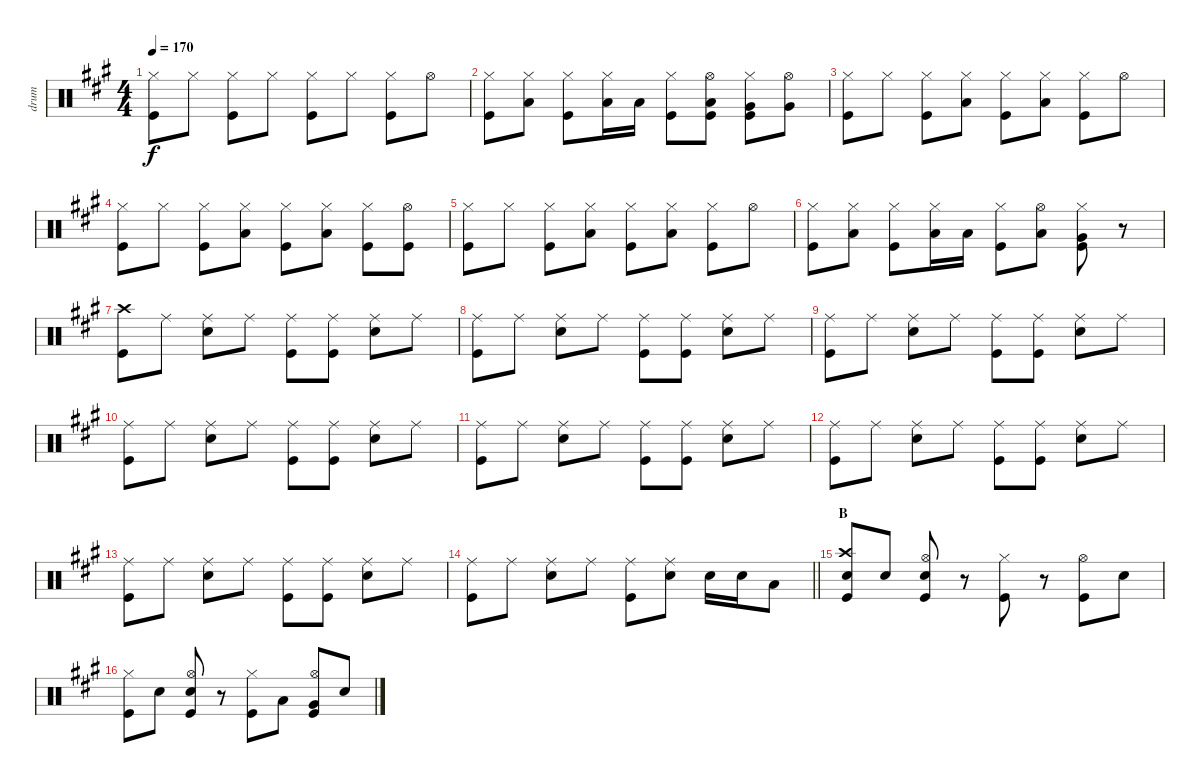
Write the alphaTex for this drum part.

\track ("drum" "drum") {instrument percussion}
\staff {score}
\articulation defaults
\ts (4 4)
\tempo 170
\clef neutral
\ks a
("Hi-Hat (closed)" "Kick (hit)").8{dy f} "Hi-Hat (closed)".8 ("Hi-Hat (closed)" "Kick (hit)").8 "Hi-Hat (closed)".8 ("Hi-Hat (closed)" "Kick (hit)").8 "Hi-Hat (closed)".8 ("Hi-Hat (closed)" "Kick (hit)").8 "Hi-Hat (open)".8 |
("Hi-Hat (closed)" "Kick (hit)").8 ("Hi-Hat (closed)" "Low Tom (hit)").8 ("Hi-Hat (closed)" "Kick (hit)").8 ("Hi-Hat (closed)" "Low Tom (hit)").16 "Low Tom (hit)".16 ("Hi-Hat (closed)" "Kick (hit)").8 ("Hi-Hat (open)" "Low Tom (hit)" "Kick (hit)").8 ("Hi-Hat (closed)" "Very Low Tom (hit)" "Kick (hit)").8 ("Hi-Hat (open)" "Very Low Tom (hit)").8 |
("Hi-Hat (closed)" "Kick (hit)").8 "Hi-Hat (closed)".8 ("Hi-Hat (closed)" "Kick (hit)").8 ("Hi-Hat (closed)" "Low Tom (hit)").8 ("Hi-Hat (closed)" "Kick (hit)").8 ("Hi-Hat (closed)" "Low Tom (hit)").8 ("Hi-Hat (closed)" "Kick (hit)").8 "Hi-Hat (open)".8 |
("Hi-Hat (closed)" "Kick (hit)").8 "Hi-Hat (closed)".8 ("Hi-Hat (closed)" "Kick (hit)").8 ("Hi-Hat (closed)" "Low Tom (hit)").8 ("Hi-Hat (closed)" "Kick (hit)").8 ("Hi-Hat (closed)" "Low Tom (hit)").8 ("Hi-Hat (closed)" "Kick (hit)").8 ("Hi-Hat (open)" "Kick (hit)").8 |
("Hi-Hat (closed)" "Kick (hit)").8 "Hi-Hat (closed)".8 ("Hi-Hat (closed)" "Kick (hit)").8 ("Hi-Hat (closed)" "Low Tom (hit)").8 ("Hi-Hat (closed)" "Kick (hit)").8 ("Hi-Hat (closed)" "Low Tom (hit)").8 ("Hi-Hat (closed)" "Kick (hit)").8 "Hi-Hat (open)".8 |
("Hi-Hat (closed)" "Kick (hit)").8 ("Hi-Hat (closed)" "Low Tom (hit)").8 ("Hi-Hat (closed)" "Kick (hit)").8 ("Hi-Hat (closed)" "Low Tom (hit)").16 "Low Tom (hit)".16 ("Hi-Hat (closed)" "Kick (hit)").8 ("Hi-Hat (open)" "Low Tom (hit)").8 ("Hi-Hat (closed)" "Very Low Tom (hit)" "Kick (hit)").8 r.8 |
("Crash high (hit)" "Kick (hit)").8 "Ride (middle)".8 ("Ride (middle)" "Snare (hit) 2").8 "Ride (middle)".8 ("Ride (middle)" "Kick (hit)").8 ("Ride (middle)" "Kick (hit)").8 ("Ride (middle)" "Snare (hit) 2").8 "Ride (middle)".8 |
("Ride (middle)" "Kick (hit)").8 "Ride (middle)".8 ("Ride (middle)" "Snare (hit) 2").8 "Ride (middle)".8 ("Ride (middle)" "Kick (hit)").8 ("Ride (middle)" "Kick (hit)").8 ("Ride (middle)" "Snare (hit) 2").8 "Ride (middle)".8 |
("Ride (middle)" "Kick (hit)").8 "Ride (middle)".8 ("Ride (middle)" "Snare (hit) 2").8 "Ride (middle)".8 ("Ride (middle)" "Kick (hit)").8 ("Ride (middle)" "Kick (hit)").8 ("Ride (middle)" "Snare (hit) 2").8 "Ride (middle)".8 |
("Ride (middle)" "Kick (hit)").8 "Ride (middle)".8 ("Ride (middle)" "Snare (hit) 2").8 "Ride (middle)".8 ("Ride (middle)" "Kick (hit)").8 ("Ride (middle)" "Kick (hit)").8 ("Ride (middle)" "Snare (hit) 2").8 "Ride (middle)".8 |
("Ride (middle)" "Kick (hit)").8 "Ride (middle)".8 ("Ride (middle)" "Snare (hit) 2").8 "Ride (middle)".8 ("Ride (middle)" "Kick (hit)").8 ("Ride (middle)" "Kick (hit)").8 ("Ride (middle)" "Snare (hit) 2").8 "Ride (middle)".8 |
("Ride (middle)" "Kick (hit)").8 "Ride (middle)".8 ("Ride (middle)" "Snare (hit) 2").8 "Ride (middle)".8 ("Ride (middle)" "Kick (hit)").8 ("Ride (middle)" "Kick (hit)").8 ("Ride (middle)" "Snare (hit) 2").8 "Ride (middle)".8 |
("Ride (middle)" "Kick (hit)").8 "Ride (middle)".8 ("Ride (middle)" "Snare (hit) 2").8 "Ride (middle)".8 ("Ride (middle)" "Kick (hit)").8 ("Ride (middle)" "Kick (hit)").8 ("Ride (middle)" "Snare (hit) 2").8 "Ride (middle)".8 |
\barLineRight lightlight
("Ride (middle)" "Kick (hit)").8 "Ride (middle)".8 ("Ride (middle)" "Snare (hit) 2").8 "Ride (middle)".8 ("Ride (middle)" "Kick (hit)").8 ("Ride (middle)" "Snare (hit) 2").8 "Snare (hit) 2".16 "Snare (hit) 2".16 "Low Tom (hit)".8 |
\section ("" "B")
("Crash high (hit)" "Snare (hit) 2" "Kick (hit)").8 "Snare (hit) 2".8 ("Hi-Hat (open)" "Snare (hit) 2" "Kick (hit)").8 r.8 ("Hi-Hat (closed)" "Kick (hit)").8 r.8 ("Hi-Hat (open)" "Kick (hit)").8 "Snare (hit) 2".8 |
("Hi-Hat (closed)" "Kick (hit)").8 "Snare (hit) 2".8 ("Hi-Hat (open)" "Snare (hit) 2" "Kick (hit)").8 r.8 ("Hi-Hat (closed)" "Kick (hit)").8 "Low Tom (hit)".8 ("Hi-Hat (open)" "Very Low Tom (hit)" "Kick (hit)").8 "Snare (hit) 2".8
